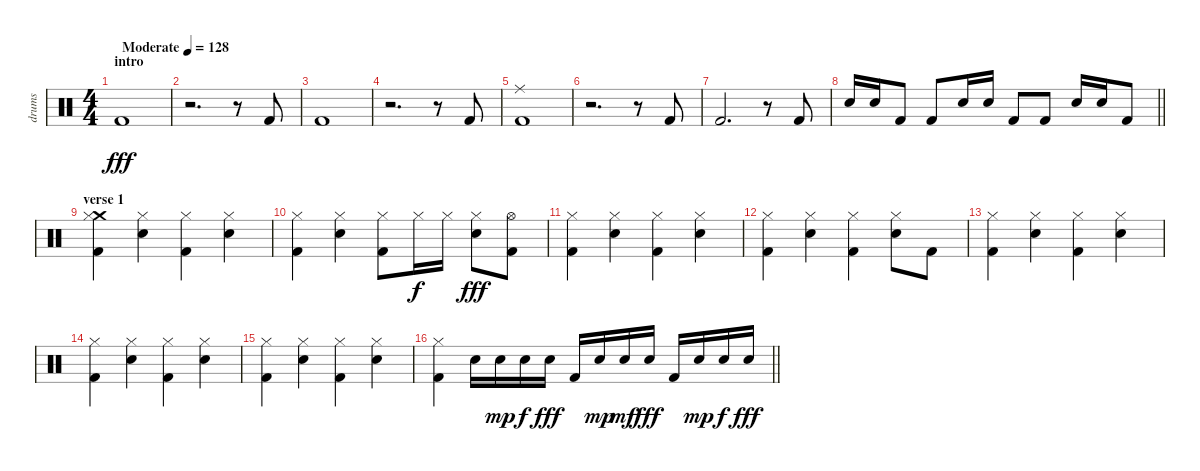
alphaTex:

\track ("drums" "drums") {instrument percussion}
\staff {score}
\articulation defaults
\ts (4 4)
\section ("" "intro")
\tempo (128 "Moderate")
\clef neutral
\ks c "Kick (hit) 2".1{dy fff}
|
r.2{d} r.8 "Kick (hit) 2".8 |
"Kick (hit) 2".1 |
r.2{d} r.8 "Kick (hit) 2".8 |
("Ride (middle)" "Kick (hit) 2").1 |
r.2{d} r.8 "Kick (hit) 2".8 |
"Kick (hit) 2".2{d} r.8 "Kick (hit) 2".8 |
\barLineRight lightlight "Electric Snare (hit)".16 "Electric Snare (hit)".16 "Kick (hit) 2".8 "Kick (hit) 2".8 "Electric Snare (hit)".16 "Electric Snare (hit)".16 "Kick (hit) 2".8 "Kick (hit) 2".8 "Electric Snare (hit)".16 "Electric Snare (hit)".16 "Kick (hit) 2".8
|
\section ("" "verse 1")
("Crash medium (hit)" "Hi-Hat (closed)" "Kick (hit) 2").4 ("Hi-Hat (closed)" "Electric Snare (hit)").4 ("Hi-Hat (closed)" "Kick (hit) 2").4 ("Hi-Hat (closed)" "Electric Snare (hit)").4 |
("Hi-Hat (closed)" "Kick (hit) 2").4 ("Hi-Hat (closed)" "Electric Snare (hit)").4 ("Hi-Hat (closed)" "Kick (hit) 2").8 "Hi-Hat (closed)".16{dy f} "Hi-Hat (closed)".16 ("Hi-Hat (closed)" "Electric Snare (hit)").8{dy fff} ("Hi-Hat (open)" "Kick (hit) 2").8 |
("Hi-Hat (closed)" "Kick (hit) 2").4 ("Hi-Hat (closed)" "Electric Snare (hit)").4 ("Hi-Hat (closed)" "Kick (hit) 2").4 ("Hi-Hat (closed)" "Electric Snare (hit)").4 |
("Hi-Hat (closed)" "Kick (hit) 2").4 ("Hi-Hat (closed)" "Electric Snare (hit)").4 ("Hi-Hat (closed)" "Kick (hit) 2").4 ("Hi-Hat (closed)" "Electric Snare (hit)").8 "Kick (hit) 2".8 |
("Hi-Hat (closed)" "Kick (hit) 2").4 ("Hi-Hat (closed)" "Electric Snare (hit)").4 ("Hi-Hat (closed)" "Kick (hit) 2").4 ("Hi-Hat (closed)" "Electric Snare (hit)").4 |
("Hi-Hat (closed)" "Kick (hit) 2").4 ("Hi-Hat (closed)" "Electric Snare (hit)").4 ("Hi-Hat (closed)" "Kick (hit) 2").4 ("Hi-Hat (closed)" "Electric Snare (hit)").4 |
("Hi-Hat (closed)" "Kick (hit) 2").4 ("Hi-Hat (closed)" "Electric Snare (hit)").4 ("Hi-Hat (closed)" "Kick (hit) 2").4 ("Hi-Hat (closed)" "Electric Snare (hit)").4 |
\barLineRight lightlight
("Hi-Hat (closed)" "Kick (hit) 2").4 "Electric Snare (hit)".16 "Electric Snare (hit)".16{dy mp} "Electric Snare (hit)".16{dy f} "Electric Snare (hit)".16{dy fff} "Kick (hit) 2".16 "Electric Snare (hit)".16{dy mp} "Electric Snare (hit)".16{dy mf} "Electric Snare (hit)".16{dy fff} "Kick (hit) 2".16 "Electric Snare (hit)".16{dy mp} "Electric Snare (hit)".16{dy f} "Electric Snare (hit)".16{dy fff}
